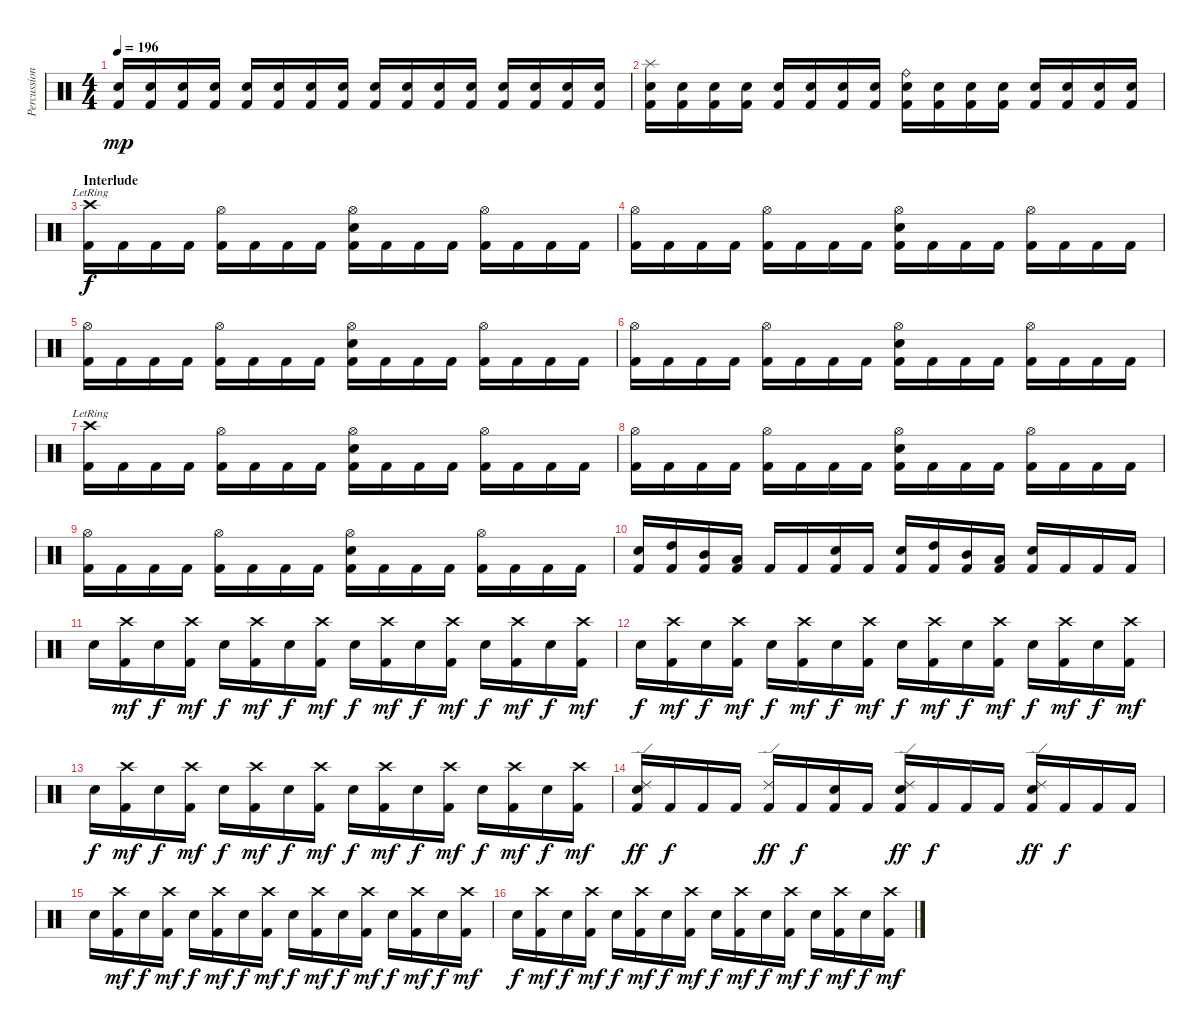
\track ("Percussions" "Percussion") {instrument percussion}
\staff {score}
\articulation defaults
\ts (4 4)
\tempo 196
\clef neutral
\ks c
("Electric Snare (hit)" "Kick (hit) 2").16{dy mp} ("Electric Snare (hit)" "Kick (hit) 2").16 ("Electric Snare (hit)" "Kick (hit) 2").16 ("Electric Snare (hit)" "Kick (hit) 2").16 ("Electric Snare (hit)" "Kick (hit) 2").16 ("Electric Snare (hit)" "Kick (hit) 2").16 ("Electric Snare (hit)" "Kick (hit) 2").16 ("Electric Snare (hit)" "Kick (hit) 2").16 ("Electric Snare (hit)" "Kick (hit) 2").16 ("Electric Snare (hit)" "Kick (hit) 2").16 ("Electric Snare (hit)" "Kick (hit) 2").16 ("Electric Snare (hit)" "Kick (hit) 2").16 ("Electric Snare (hit)" "Kick (hit) 2").16 ("Electric Snare (hit)" "Kick (hit) 2").16 ("Electric Snare (hit)" "Kick (hit) 2").16 ("Electric Snare (hit)" "Kick (hit) 2").16 |
("Splash (hit)" "Electric Snare (hit)" "Kick (hit) 2").16 ("Electric Snare (hit)" "Kick (hit) 2").16 ("Electric Snare (hit)" "Kick (hit) 2").16 ("Electric Snare (hit)" "Kick (hit) 2").16 ("Electric Snare (hit)" "Kick (hit) 2").16 ("Electric Snare (hit)" "Kick (hit) 2").16 ("Electric Snare (hit)" "Kick (hit) 2").16 ("Electric Snare (hit)" "Kick (hit) 2").16 ("Ride (bell)" "Electric Snare (hit)" "Kick (hit) 2").16 ("Electric Snare (hit)" "Kick (hit) 2").16 ("Electric Snare (hit)" "Kick (hit) 2").16 ("Electric Snare (hit)" "Kick (hit) 2").16 ("Electric Snare (hit)" "Kick (hit) 2").16 ("Electric Snare (hit)" "Kick (hit) 2").16 ("Electric Snare (hit)" "Kick (hit) 2").16 ("Electric Snare (hit)" "Kick (hit) 2").16 |
\section ("" "Interlude")
("Crash high (hit)"{lr} "Kick (hit) 2").16{dy f} "Kick (hit) 2".16 "Kick (hit) 2".16 "Kick (hit) 2".16 ("Hi-Hat (open)" "Kick (hit) 2").16 "Kick (hit) 2".16 "Kick (hit) 2".16 "Kick (hit) 2".16 ("Hi-Hat (open)" "Electric Snare (hit)" "Kick (hit) 2").16 "Kick (hit) 2".16 "Kick (hit) 2".16 "Kick (hit) 2".16 ("Hi-Hat (open)" "Kick (hit) 2").16 "Kick (hit) 2".16 "Kick (hit) 2".16 "Kick (hit) 2".16 |
("Hi-Hat (open)" "Kick (hit) 2").16 "Kick (hit) 2".16 "Kick (hit) 2".16 "Kick (hit) 2".16 ("Hi-Hat (open)" "Kick (hit) 2").16 "Kick (hit) 2".16 "Kick (hit) 2".16 "Kick (hit) 2".16 ("Hi-Hat (open)" "Electric Snare (hit)" "Kick (hit) 2").16 "Kick (hit) 2".16 "Kick (hit) 2".16 "Kick (hit) 2".16 ("Hi-Hat (open)" "Kick (hit) 2").16 "Kick (hit) 2".16 "Kick (hit) 2".16 "Kick (hit) 2".16 |
("Hi-Hat (open)" "Kick (hit) 2").16 "Kick (hit) 2".16 "Kick (hit) 2".16 "Kick (hit) 2".16 ("Hi-Hat (open)" "Kick (hit) 2").16 "Kick (hit) 2".16 "Kick (hit) 2".16 "Kick (hit) 2".16 ("Hi-Hat (open)" "Electric Snare (hit)" "Kick (hit) 2").16 "Kick (hit) 2".16 "Kick (hit) 2".16 "Kick (hit) 2".16 ("Hi-Hat (open)" "Kick (hit) 2").16 "Kick (hit) 2".16 "Kick (hit) 2".16 "Kick (hit) 2".16 |
("Hi-Hat (open)" "Kick (hit) 2").16 "Kick (hit) 2".16 "Kick (hit) 2".16 "Kick (hit) 2".16 ("Hi-Hat (open)" "Kick (hit) 2").16 "Kick (hit) 2".16 "Kick (hit) 2".16 "Kick (hit) 2".16 ("Hi-Hat (open)" "Electric Snare (hit)" "Kick (hit) 2").16 "Kick (hit) 2".16 "Kick (hit) 2".16 "Kick (hit) 2".16 ("Hi-Hat (open)" "Kick (hit) 2").16 "Kick (hit) 2".16 "Kick (hit) 2".16 "Kick (hit) 2".16 |
("Crash high (hit)"{lr} "Kick (hit) 2").16 "Kick (hit) 2".16 "Kick (hit) 2".16 "Kick (hit) 2".16 ("Hi-Hat (open)" "Kick (hit) 2").16 "Kick (hit) 2".16 "Kick (hit) 2".16 "Kick (hit) 2".16 ("Hi-Hat (open)" "Electric Snare (hit)" "Kick (hit) 2").16 "Kick (hit) 2".16 "Kick (hit) 2".16 "Kick (hit) 2".16 ("Hi-Hat (open)" "Kick (hit) 2").16 "Kick (hit) 2".16 "Kick (hit) 2".16 "Kick (hit) 2".16 |
("Hi-Hat (open)" "Kick (hit) 2").16 "Kick (hit) 2".16 "Kick (hit) 2".16 "Kick (hit) 2".16 ("Hi-Hat (open)" "Kick (hit) 2").16 "Kick (hit) 2".16 "Kick (hit) 2".16 "Kick (hit) 2".16 ("Hi-Hat (open)" "Electric Snare (hit)" "Kick (hit) 2").16 "Kick (hit) 2".16 "Kick (hit) 2".16 "Kick (hit) 2".16 ("Hi-Hat (open)" "Kick (hit) 2").16 "Kick (hit) 2".16 "Kick (hit) 2".16 "Kick (hit) 2".16 |
("Hi-Hat (open)" "Kick (hit) 2").16 "Kick (hit) 2".16 "Kick (hit) 2".16 "Kick (hit) 2".16 ("Hi-Hat (open)" "Kick (hit) 2").16 "Kick (hit) 2".16 "Kick (hit) 2".16 "Kick (hit) 2".16 ("Hi-Hat (open)" "Electric Snare (hit)" "Kick (hit) 2").16 "Kick (hit) 2".16 "Kick (hit) 2".16 "Kick (hit) 2".16 ("Hi-Hat (open)" "Kick (hit) 2").16 "Kick (hit) 2".16 "Kick (hit) 2".16 "Kick (hit) 2".16 |
("Electric Snare (hit)" "Kick (hit) 2").16 ("High Tom (hit)" "Kick (hit) 2").16 ("Mid Tom (hit)" "Kick (hit) 2").16 ("Low Tom (hit)" "Kick (hit) 2").16 "Kick (hit) 2".16 "Kick (hit) 2".16 ("Electric Snare (hit)" "Kick (hit) 2").16 "Kick (hit) 2".16 ("Electric Snare (hit)" "Kick (hit) 2").16 ("High Tom (hit)" "Kick (hit) 2").16 ("Mid Tom (hit)" "Kick (hit) 2").16 ("Low Tom (hit)" "Kick (hit) 2").16 ("Electric Snare (hit)" "Kick (hit) 2").16 "Kick (hit) 2".16 "Kick (hit) 2".16 "Kick (hit) 2".16 |
"Electric Snare (hit)".16 ("Crash high (hit)" "Kick (hit) 2").16{dy mf} "Electric Snare (hit)".16{dy f} ("Crash high (hit)" "Kick (hit) 2").16{dy mf} "Electric Snare (hit)".16{dy f} ("Crash high (hit)" "Kick (hit) 2").16{dy mf} "Electric Snare (hit)".16{dy f} ("Crash high (hit)" "Kick (hit) 2").16{dy mf} "Electric Snare (hit)".16{dy f} ("Crash high (hit)" "Kick (hit) 2").16{dy mf} "Electric Snare (hit)".16{dy f} ("Crash high (hit)" "Kick (hit) 2").16{dy mf} "Electric Snare (hit)".16{dy f} ("Crash high (hit)" "Kick (hit) 2").16{dy mf} "Electric Snare (hit)".16{dy f} ("Crash high (hit)" "Kick (hit) 2").16{dy mf} |
"Electric Snare (hit)".16{dy f} ("Crash high (hit)" "Kick (hit) 2").16{dy mf} "Electric Snare (hit)".16{dy f} ("Crash high (hit)" "Kick (hit) 2").16{dy mf} "Electric Snare (hit)".16{dy f} ("Crash high (hit)" "Kick (hit) 2").16{dy mf} "Electric Snare (hit)".16{dy f} ("Crash high (hit)" "Kick (hit) 2").16{dy mf} "Electric Snare (hit)".16{dy f} ("Crash high (hit)" "Kick (hit) 2").16{dy mf} "Electric Snare (hit)".16{dy f} ("Crash high (hit)" "Kick (hit) 2").16{dy mf} "Electric Snare (hit)".16{dy f} ("Crash high (hit)" "Kick (hit) 2").16{dy mf} "Electric Snare (hit)".16{dy f} ("Crash high (hit)" "Kick (hit) 2").16{dy mf} |
"Electric Snare (hit)".16{dy f} ("Crash high (hit)" "Kick (hit) 2").16{dy mf} "Electric Snare (hit)".16{dy f} ("Crash high (hit)" "Kick (hit) 2").16{dy mf} "Electric Snare (hit)".16{dy f} ("Crash high (hit)" "Kick (hit) 2").16{dy mf} "Electric Snare (hit)".16{dy f} ("Crash high (hit)" "Kick (hit) 2").16{dy mf} "Electric Snare (hit)".16{dy f} ("Crash high (hit)" "Kick (hit) 2").16{dy mf} "Electric Snare (hit)".16{dy f} ("Crash high (hit)" "Kick (hit) 2").16{dy mf} "Electric Snare (hit)".16{dy f} ("Crash high (hit)" "Kick (hit) 2").16{dy mf} "Electric Snare (hit)".16{dy f} ("Crash high (hit)" "Kick (hit) 2").16{dy mf} |
("Ride (edge) 2" "Electric Snare (hit)" "Kick (hit) 2").16{dy ff} "Kick (hit) 2".16{dy f} "Kick (hit) 2".16 "Kick (hit) 2".16 ("Ride (edge) 2" "Kick (hit) 2").16{dy ff} "Kick (hit) 2".16{dy f} ("Electric Snare (hit)" "Kick (hit) 2").16 "Kick (hit) 2".16 ("Ride (edge) 2" "Electric Snare (hit)" "Kick (hit) 2").16{dy ff} "Kick (hit) 2".16{dy f} "Kick (hit) 2".16 "Kick (hit) 2".16 ("Ride (edge) 2" "Electric Snare (hit)" "Kick (hit) 2").16{dy ff} "Kick (hit) 2".16{dy f} "Kick (hit) 2".16 "Kick (hit) 2".16 |
"Electric Snare (hit)".16 ("Crash high (hit)" "Kick (hit) 2").16{dy mf} "Electric Snare (hit)".16{dy f} ("Crash high (hit)" "Kick (hit) 2").16{dy mf} "Electric Snare (hit)".16{dy f} ("Crash high (hit)" "Kick (hit) 2").16{dy mf} "Electric Snare (hit)".16{dy f} ("Crash high (hit)" "Kick (hit) 2").16{dy mf} "Electric Snare (hit)".16{dy f} ("Crash high (hit)" "Kick (hit) 2").16{dy mf} "Electric Snare (hit)".16{dy f} ("Crash high (hit)" "Kick (hit) 2").16{dy mf} "Electric Snare (hit)".16{dy f} ("Crash high (hit)" "Kick (hit) 2").16{dy mf} "Electric Snare (hit)".16{dy f} ("Crash high (hit)" "Kick (hit) 2").16{dy mf} |
"Electric Snare (hit)".16{dy f} ("Crash high (hit)" "Kick (hit) 2").16{dy mf} "Electric Snare (hit)".16{dy f} ("Crash high (hit)" "Kick (hit) 2").16{dy mf} "Electric Snare (hit)".16{dy f} ("Crash high (hit)" "Kick (hit) 2").16{dy mf} "Electric Snare (hit)".16{dy f} ("Crash high (hit)" "Kick (hit) 2").16{dy mf} "Electric Snare (hit)".16{dy f} ("Crash high (hit)" "Kick (hit) 2").16{dy mf} "Electric Snare (hit)".16{dy f} ("Crash high (hit)" "Kick (hit) 2").16{dy mf} "Electric Snare (hit)".16{dy f} ("Crash high (hit)" "Kick (hit) 2").16{dy mf} "Electric Snare (hit)".16{dy f} ("Crash high (hit)" "Kick (hit) 2").16{dy mf}
